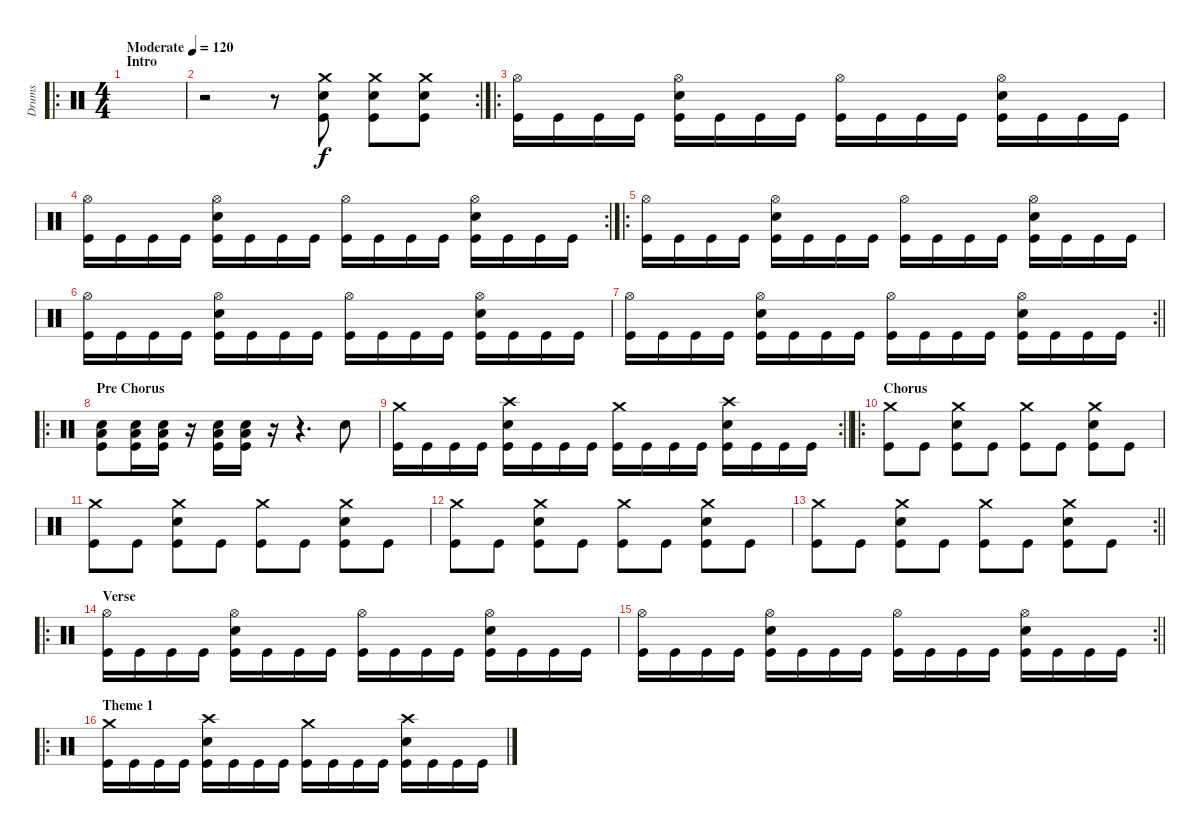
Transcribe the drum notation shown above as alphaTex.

\track ("Drums" "Drums") {instrument percussion}
\staff {score}
\articulation defaults
\ro
\ts (4 4)
\section ("" "Intro")
\tempo (120 "Moderate")
\clef neutral
\ks c
|
\rc 2
r.2 r.8 ("Crash medium (hit)" "Snare (hit) 2" "Kick (hit)").8 ("Crash medium (hit)" "Snare (hit) 2" "Kick (hit)").8 ("Crash medium (hit)" "Snare (hit) 2" "Kick (hit)").8 |
\ro
("Hi-Hat (open)" "Kick (hit)").16 "Kick (hit)".16 "Kick (hit)".16 "Kick (hit)".16 ("Hi-Hat (open)" "Snare (hit) 2" "Kick (hit)").16 "Kick (hit)".16 "Kick (hit)".16 "Kick (hit)".16 ("Hi-Hat (open)" "Kick (hit)").16 "Kick (hit)".16 "Kick (hit)".16 "Kick (hit)".16 ("Hi-Hat (open)" "Snare (hit) 2" "Kick (hit)").16 "Kick (hit)".16 "Kick (hit)".16 "Kick (hit)".16 |
\rc 2
("Hi-Hat (open)" "Kick (hit)").16 "Kick (hit)".16 "Kick (hit)".16 "Kick (hit)".16 ("Hi-Hat (open)" "Snare (hit) 2" "Kick (hit)").16 "Kick (hit)".16 "Kick (hit)".16 "Kick (hit)".16 ("Hi-Hat (open)" "Kick (hit)").16 "Kick (hit)".16 "Kick (hit)".16 "Kick (hit)".16 ("Hi-Hat (open)" "Snare (hit) 2" "Kick (hit)").16 "Kick (hit)".16 "Kick (hit)".16 "Kick (hit)".16 |
\ro
("Hi-Hat (open)" "Kick (hit)").16 "Kick (hit)".16 "Kick (hit)".16 "Kick (hit)".16 ("Hi-Hat (open)" "Snare (hit) 2" "Kick (hit)").16 "Kick (hit)".16 "Kick (hit)".16 "Kick (hit)".16 ("Hi-Hat (open)" "Kick (hit)").16 "Kick (hit)".16 "Kick (hit)".16 "Kick (hit)".16 ("Hi-Hat (open)" "Snare (hit) 2" "Kick (hit)").16 "Kick (hit)".16 "Kick (hit)".16 "Kick (hit)".16 |
("Hi-Hat (open)" "Kick (hit)").16 "Kick (hit)".16 "Kick (hit)".16 "Kick (hit)".16 ("Hi-Hat (open)" "Snare (hit) 2" "Kick (hit)").16 "Kick (hit)".16 "Kick (hit)".16 "Kick (hit)".16 ("Hi-Hat (open)" "Kick (hit)").16 "Kick (hit)".16 "Kick (hit)".16 "Kick (hit)".16 ("Hi-Hat (open)" "Snare (hit) 2" "Kick (hit)").16 "Kick (hit)".16 "Kick (hit)".16 "Kick (hit)".16 |
\rc 2
\barLineRight lightlight
("Hi-Hat (open)" "Kick (hit)").16 "Kick (hit)".16 "Kick (hit)".16 "Kick (hit)".16 ("Hi-Hat (open)" "Snare (hit) 2" "Kick (hit)").16 "Kick (hit)".16 "Kick (hit)".16 "Kick (hit)".16 ("Hi-Hat (open)" "Kick (hit)").16 "Kick (hit)".16 "Kick (hit)".16 "Kick (hit)".16 ("Hi-Hat (open)" "Snare (hit) 2" "Kick (hit)").16 "Kick (hit)".16 "Kick (hit)".16 "Kick (hit)".16 |
\ro
\section ("" "Pre Chorus")
("Snare (hit) 2" "Low Floor Tom (hit)" "Kick (hit)").8 ("Snare (hit) 2" "Low Floor Tom (hit)" "Kick (hit)").16 ("Snare (hit) 2" "Low Floor Tom (hit)" "Kick (hit)").16 r.16 ("Snare (hit) 2" "Low Floor Tom (hit)" "Kick (hit)").16 ("Snare (hit) 2" "Low Floor Tom (hit)" "Kick (hit)").16 r.16 r.4{d} "Snare (hit) 2".8 |
\rc 2
\barLineRight lightlight
("Crash medium (hit)" "Kick (hit)").16 "Kick (hit)".16 "Kick (hit)".16 "Kick (hit)".16 ("Crash high (hit)" "Snare (hit) 2" "Kick (hit)").16 "Kick (hit)".16 "Kick (hit)".16 "Kick (hit)".16 ("Crash medium (hit)" "Kick (hit)").16 "Kick (hit)".16 "Kick (hit)".16 "Kick (hit)".16 ("Crash high (hit)" "Snare (hit) 2" "Kick (hit)").16 "Kick (hit)".16 "Kick (hit)".16 "Kick (hit)".16 |
\ro
\section ("" "Chorus")
("Crash medium (hit)" "Kick (hit)").8 "Kick (hit)".8 ("Crash medium (hit)" "Snare (hit) 2" "Kick (hit)").8 "Kick (hit)".8 ("Crash medium (hit)" "Kick (hit)").8 "Kick (hit)".8 ("Crash medium (hit)" "Snare (hit) 2" "Kick (hit)").8 "Kick (hit)".8 |
("Crash medium (hit)" "Kick (hit)").8 "Kick (hit)".8 ("Crash medium (hit)" "Snare (hit) 2" "Kick (hit)").8 "Kick (hit)".8 ("Crash medium (hit)" "Kick (hit)").8 "Kick (hit)".8 ("Crash medium (hit)" "Snare (hit) 2" "Kick (hit)").8 "Kick (hit)".8 |
("Crash medium (hit)" "Kick (hit)").8 "Kick (hit)".8 ("Crash medium (hit)" "Snare (hit) 2" "Kick (hit)").8 "Kick (hit)".8 ("Crash medium (hit)" "Kick (hit)").8 "Kick (hit)".8 ("Crash medium (hit)" "Snare (hit) 2" "Kick (hit)").8 "Kick (hit)".8 |
\rc 2
\barLineRight lightlight
("Crash medium (hit)" "Kick (hit)").8 "Kick (hit)".8 ("Crash medium (hit)" "Snare (hit) 2" "Kick (hit)").8 "Kick (hit)".8 ("Crash medium (hit)" "Kick (hit)").8 "Kick (hit)".8 ("Crash medium (hit)" "Snare (hit) 2" "Kick (hit)").8 "Kick (hit)".8 |
\ro
\section ("" "Verse")
("Hi-Hat (open)" "Kick (hit)").16 "Kick (hit)".16 "Kick (hit)".16 "Kick (hit)".16 ("Hi-Hat (open)" "Snare (hit) 2" "Kick (hit)").16 "Kick (hit)".16 "Kick (hit)".16 "Kick (hit)".16 ("Hi-Hat (open)" "Kick (hit)").16 "Kick (hit)".16 "Kick (hit)".16 "Kick (hit)".16 ("Hi-Hat (open)" "Snare (hit) 2" "Kick (hit)").16 "Kick (hit)".16 "Kick (hit)".16 "Kick (hit)".16 |
\rc 2
\barLineRight lightlight
("Hi-Hat (open)" "Kick (hit)").16 "Kick (hit)".16 "Kick (hit)".16 "Kick (hit)".16 ("Hi-Hat (open)" "Snare (hit) 2" "Kick (hit)").16 "Kick (hit)".16 "Kick (hit)".16 "Kick (hit)".16 ("Hi-Hat (open)" "Kick (hit)").16 "Kick (hit)".16 "Kick (hit)".16 "Kick (hit)".16 ("Hi-Hat (open)" "Snare (hit) 2" "Kick (hit)").16 "Kick (hit)".16 "Kick (hit)".16 "Kick (hit)".16 |
\ro
\section ("" "Theme 1")
("Crash medium (hit)" "Kick (hit)").16 "Kick (hit)".16 "Kick (hit)".16 "Kick (hit)".16 ("Crash high (hit)" "Snare (hit) 2" "Kick (hit)").16 "Kick (hit)".16 "Kick (hit)".16 "Kick (hit)".16 ("Crash medium (hit)" "Kick (hit)").16 "Kick (hit)".16 "Kick (hit)".16 "Kick (hit)".16 ("Crash high (hit)" "Snare (hit) 2" "Kick (hit)").16 "Kick (hit)".16 "Kick (hit)".16 "Kick (hit)".16
